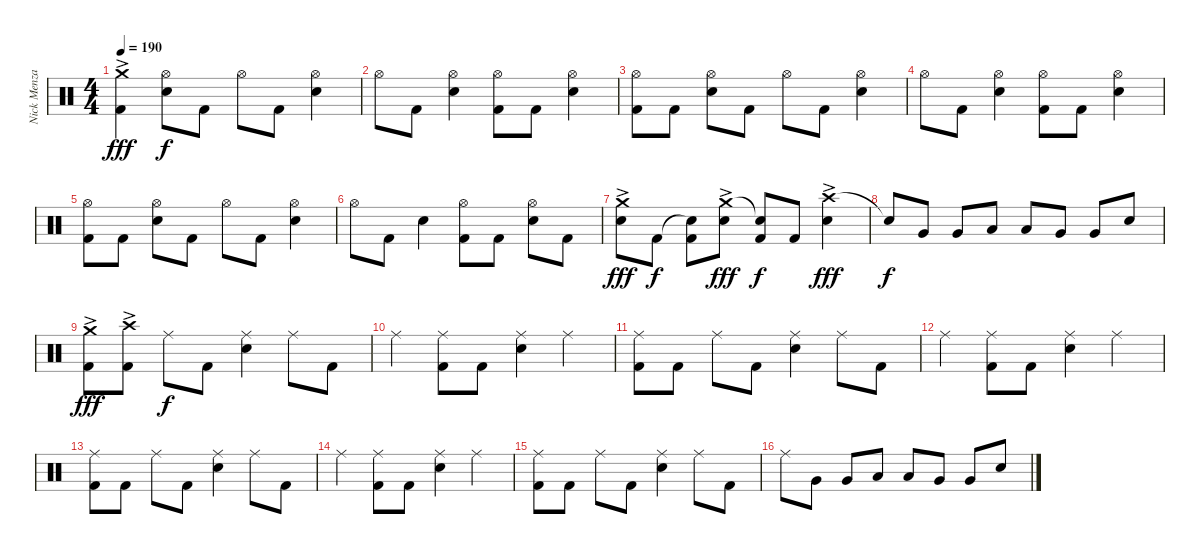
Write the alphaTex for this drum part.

\track ("Nick Menza" "Nick Menza") {instrument percussion}
\staff {score}
\articulation defaults
\ts (4 4)
\tempo 190
\clef neutral
\ks c
("Crash medium (hit)"{ac} "Kick (hit) 2").4{dy fff} ("Hi-Hat (open)" "Snare (hit) 2").8{dy f} "Kick (hit) 2".8 "Hi-Hat (open)".8 "Kick (hit) 2".8 ("Hi-Hat (open)" "Snare (hit) 2").4 |
"Hi-Hat (open)".8 "Kick (hit) 2".8 ("Hi-Hat (open)" "Snare (hit) 2").4 ("Hi-Hat (open)" "Kick (hit) 2").8 "Kick (hit) 2".8 ("Hi-Hat (open)" "Snare (hit) 2").4 |
("Hi-Hat (open)" "Kick (hit) 2").8 "Kick (hit) 2".8 ("Hi-Hat (open)" "Snare (hit) 2").8 "Kick (hit) 2".8 "Hi-Hat (open)".8 "Kick (hit) 2".8 ("Hi-Hat (open)" "Snare (hit) 2").4 |
"Hi-Hat (open)".8 "Kick (hit) 2".8 ("Hi-Hat (open)" "Snare (hit) 2").4 ("Hi-Hat (open)" "Kick (hit) 2").8 "Kick (hit) 2".8 ("Hi-Hat (open)" "Snare (hit) 2").4 |
("Hi-Hat (open)" "Kick (hit) 2").8 "Kick (hit) 2".8 ("Hi-Hat (open)" "Snare (hit) 2").8 "Kick (hit) 2".8 "Hi-Hat (open)".8 "Kick (hit) 2".8 ("Hi-Hat (open)" "Snare (hit) 2").4 |
"Hi-Hat (open)".8 "Kick (hit) 2".8 "Snare (hit) 2".4 ("Hi-Hat (open)" "Kick (hit) 2").8 "Kick (hit) 2".8 ("Hi-Hat (open)" "Snare (hit) 2").8 "Kick (hit) 2".8 |
("Crash medium (hit)"{ac} "Snare (hit) 2").8{dy fff} "Kick (hit) 2".8{dy f} ("Snare (hit)"{t} "Kick (hit) 2").8 ("Crash medium (hit)"{ac} "Snare (hit) 2").8{dy fff} ("Snare (hit)"{t} "Kick (hit) 2").8{dy f} "Kick (hit) 2".8 ("Crash high (hit)"{ac} "Snare (hit) 2").4{dy fff} |
"Snare (hit)"{t}.8{dy f} "Very Low Tom (hit)".8 "Very Low Tom (hit)".8 "Low Tom (hit)".8 "Low Tom (hit)".8 "Very Low Tom (hit)".8 "Very Low Tom (hit)".8 "Snare (hit) 2".8 |
("Crash medium (hit)"{ac} "Kick (hit) 2").8{dy fff} ("Crash high (hit)"{ac} "Kick (hit) 2").8 "Ride (middle)".8{dy f} "Kick (hit) 2".8 ("Ride (middle)" "Snare (hit) 2").4 "Ride (middle)".8 "Kick (hit) 2".8 |
"Ride (middle)".4 ("Ride (middle)" "Kick (hit) 2").8 "Kick (hit) 2".8 ("Ride (middle)" "Snare (hit) 2").4 "Ride (middle)".4 |
("Ride (middle)" "Kick (hit) 2").8 "Kick (hit) 2".8 "Ride (middle)".8 "Kick (hit) 2".8 ("Ride (middle)" "Snare (hit) 2").4 "Ride (middle)".8 "Kick (hit) 2".8 |
"Ride (middle)".4 ("Ride (middle)" "Kick (hit) 2").8 "Kick (hit) 2".8 ("Ride (middle)" "Snare (hit) 2").4 "Ride (middle)".4 |
("Ride (middle)" "Kick (hit) 2").8 "Kick (hit) 2".8 "Ride (middle)".8 "Kick (hit) 2".8 ("Ride (middle)" "Snare (hit) 2").4 "Ride (middle)".8 "Kick (hit) 2".8 |
"Ride (middle)".4 ("Ride (middle)" "Kick (hit) 2").8 "Kick (hit) 2".8 ("Ride (middle)" "Snare (hit) 2").4 "Ride (middle)".4 |
("Ride (middle)" "Kick (hit) 2").8 "Kick (hit) 2".8 "Ride (middle)".8 "Kick (hit) 2".8 ("Ride (middle)" "Snare (hit) 2").4 "Ride (middle)".8 "Kick (hit) 2".8 |
"Ride (middle)".8 "Very Low Tom (hit)".8 "Very Low Tom (hit)".8 "Low Tom (hit)".8 "Low Tom (hit)".8 "Very Low Tom (hit)".8 "Very Low Tom (hit)".8 "Snare (hit) 2".8
